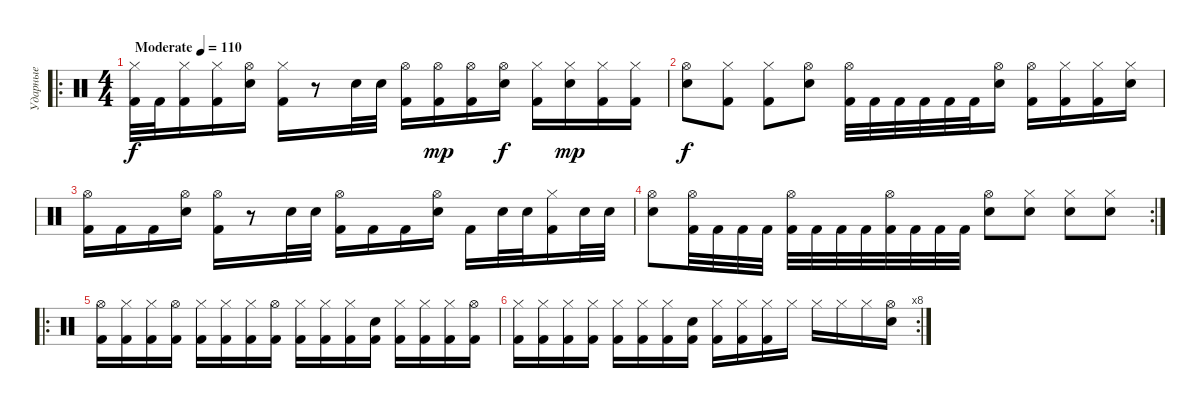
\track ("Ударные" "Ударные") {instrument percussion}
\staff {score}
\articulation defaults
\ro
\ts (4 4)
\tempo (110 "Moderate")
\clef neutral
\ks c
("Hi-Hat (closed)" "Kick (hit) 2").32{dy f} "Kick (hit) 2".32 ("Hi-Hat (closed)" "Kick (hit) 2").16 ("Hi-Hat (closed)" "Kick (hit) 2").16 ("Hi-Hat (open)" "Electric Snare (hit)").16 ("Hi-Hat (closed)" "Kick (hit) 2").16 r.8 "Electric Snare (hit)".32 "Electric Snare (hit)".32 ("Hi-Hat (open)" "Kick (hit) 2").16 ("Hi-Hat (open)" "Kick (hit) 2").16{dy mp} ("Hi-Hat (open)" "Kick (hit) 2").16 ("Hi-Hat (open)" "Electric Snare (hit)").16{dy f} ("Hi-Hat (closed)" "Kick (hit) 2").16 ("Hi-Hat (closed)" "Electric Snare (hit)").16{dy mp} ("Hi-Hat (closed)" "Kick (hit) 2").16 ("Hi-Hat (closed)" "Kick (hit) 2").16 |
("Hi-Hat (open)" "Electric Snare (hit)").8{dy f} ("Hi-Hat (closed)" "Kick (hit) 2").8 ("Hi-Hat (closed)" "Kick (hit) 2").8 ("Hi-Hat (open)" "Electric Snare (hit)").8 ("Hi-Hat (open)" "Kick (hit) 2").32 "Kick (hit) 2".32 "Kick (hit) 2".32 "Kick (hit) 2".32 "Kick (hit) 2".32 "Kick (hit) 2".32 ("Hi-Hat (open)" "Electric Snare (hit)").16 ("Hi-Hat (open)" "Kick (hit) 2").16 ("Hi-Hat (closed)" "Kick (hit) 2").16 ("Hi-Hat (closed)" "Kick (hit) 2").16 ("Hi-Hat (closed)" "Electric Snare (hit)").16 |
("Hi-Hat (open)" "Kick (hit) 2").16 "Kick (hit) 2".16 "Kick (hit) 2".16 ("Hi-Hat (open)" "Electric Snare (hit)").16 ("Hi-Hat (open)" "Kick (hit) 2").16 r.8 "Electric Snare (hit)".32 "Electric Snare (hit)".32 ("Hi-Hat (open)" "Kick (hit) 2").16 "Kick (hit) 2".16 "Kick (hit) 2".16 ("Hi-Hat (open)" "Electric Snare (hit)").16 "Kick (hit) 2".16 "Electric Snare (hit)".32 "Electric Snare (hit)".32 ("Hi-Hat (closed)" "Kick (hit) 2").16 "Electric Snare (hit)".32 "Electric Snare (hit)".32 |
\rc 2
("Hi-Hat (open)" "Electric Snare (hit)").8 ("Hi-Hat (open)" "Kick (hit) 2").32 "Kick (hit) 2".32 "Kick (hit) 2".32 "Kick (hit) 2".32 ("Hi-Hat (open)" "Kick (hit) 2").32 "Kick (hit) 2".32 "Kick (hit) 2".32 "Kick (hit) 2".32 ("Hi-Hat (open)" "Kick (hit) 2").32 "Kick (hit) 2".32 "Kick (hit) 2".32 "Kick (hit) 2".32 ("Hi-Hat (open)" "Electric Snare (hit)").8 ("Hi-Hat (closed)" "Electric Snare (hit)").8 ("Hi-Hat (closed)" "Electric Snare (hit)").8 ("Hi-Hat (closed)" "Electric Snare (hit)").8 |
\ro
("Hi-Hat (open)" "Kick (hit) 2").16 ("Hi-Hat (closed)" "Kick (hit) 2").16 ("Hi-Hat (closed)" "Kick (hit) 2").16 ("Hi-Hat (open)" "Kick (hit) 2").16 ("Hi-Hat (closed)" "Kick (hit) 2").16 ("Hi-Hat (closed)" "Kick (hit) 2").16 ("Hi-Hat (closed)" "Kick (hit) 2").16 ("Hi-Hat (open)" "Kick (hit) 2").16 ("Hi-Hat (closed)" "Kick (hit) 2").16 ("Hi-Hat (closed)" "Kick (hit) 2").16 ("Hi-Hat (closed)" "Kick (hit) 2").16 ("Electric Snare (hit)" "Kick (hit) 2").16 ("Hi-Hat (closed)" "Kick (hit) 2").16 ("Hi-Hat (closed)" "Kick (hit) 2").16 ("Hi-Hat (closed)" "Kick (hit) 2").16 ("Hi-Hat (open)" "Kick (hit) 2").16 |
\rc 8
("Hi-Hat (closed)" "Kick (hit) 2").16 ("Hi-Hat (closed)" "Kick (hit) 2").16 ("Hi-Hat (closed)" "Kick (hit) 2").16 ("Hi-Hat (closed)" "Kick (hit) 2").16 ("Hi-Hat (closed)" "Kick (hit) 2").16 ("Hi-Hat (closed)" "Kick (hit) 2").16 ("Hi-Hat (closed)" "Kick (hit) 2").16 ("Electric Snare (hit)" "Kick (hit) 2").16 ("Hi-Hat (closed)" "Kick (hit) 2").16 ("Hi-Hat (closed)" "Kick (hit) 2").16 ("Hi-Hat (closed)" "Kick (hit) 2").16 "Hi-Hat (closed)".16 "Hi-Hat (closed)".16 "Hi-Hat (closed)".16 "Hi-Hat (closed)".16 ("Hi-Hat (open)" "Electric Snare (hit)").16
